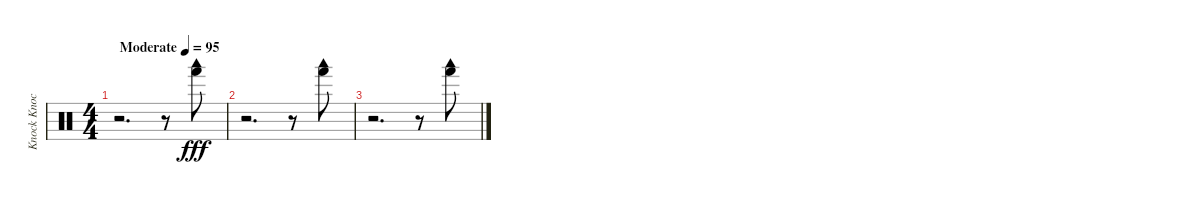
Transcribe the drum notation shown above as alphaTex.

\track ("Knock Knock" "Knock Knoc") {instrument percussion}
\staff {score}
\articulation defaults
\ts (4 4)
\tempo (95 "Moderate")
\clef neutral
\ks c
r.2{d dy fff} r.8 ("Hand (hit)" "Woodblock low (hit)").8 |
r.2{d} r.8 ("Hand (hit)" "Woodblock low (hit)").8 |
r.2{d} r.8 ("Hand (hit)" "Woodblock low (hit)").8
